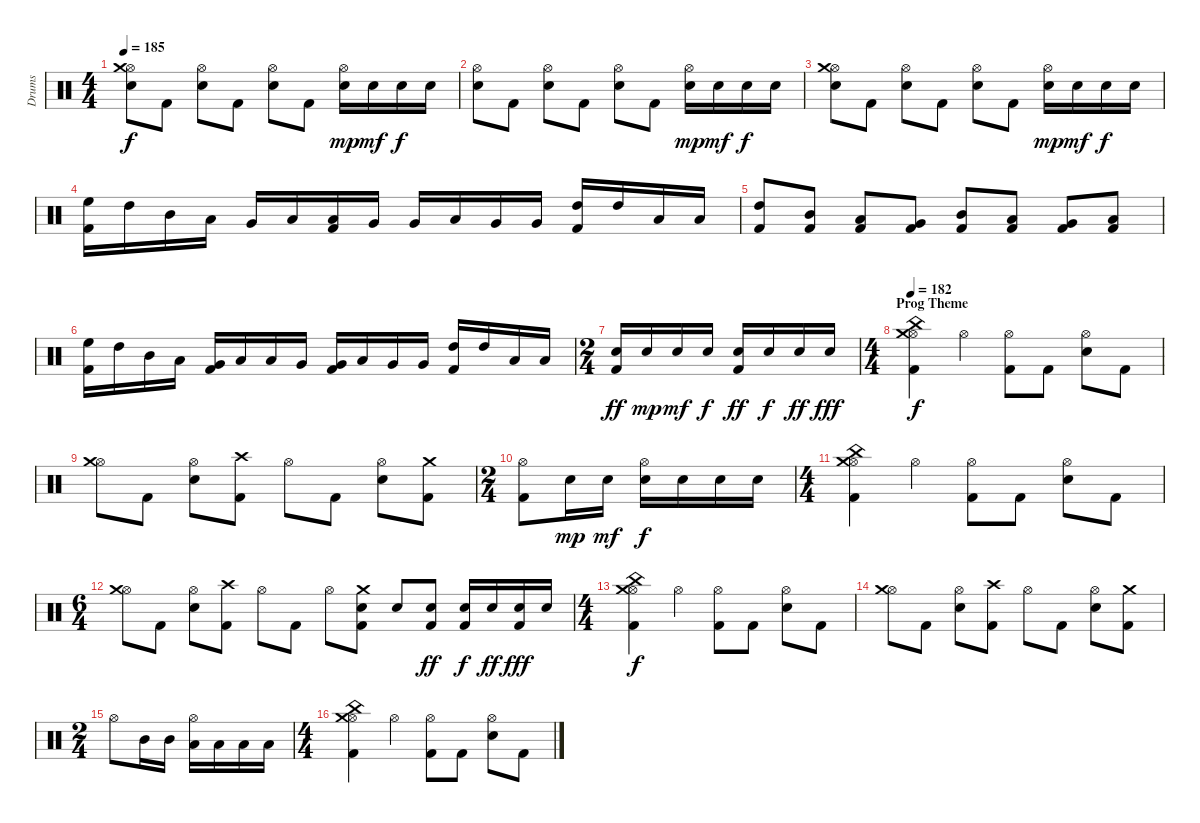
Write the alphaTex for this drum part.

\track ("Drums" "Drums") {instrument percussion}
\staff {score}
\articulation defaults
\ts (4 4)
\section ("" "")
\tempo 185
\clef neutral
\ks c
("Hi-Hat (open)" "Crash medium (hit)" "Electric Snare (hit)").8{dy f} "Kick (hit) 2".8 ("Hi-Hat (open)" "Electric Snare (hit)").8 "Kick (hit) 2".8 ("Hi-Hat (open)" "Electric Snare (hit)").8 "Kick (hit) 2".8 ("Hi-Hat (open)" "Electric Snare (hit)").16{dy mp} "Electric Snare (hit)".16{dy mf} "Electric Snare (hit)".16{dy f} "Electric Snare (hit)".16 |
("Hi-Hat (open)" "Electric Snare (hit)").8 "Kick (hit) 2".8 ("Hi-Hat (open)" "Electric Snare (hit)").8 "Kick (hit) 2".8 ("Hi-Hat (open)" "Electric Snare (hit)").8 "Kick (hit) 2".8 ("Hi-Hat (open)" "Electric Snare (hit)").16{dy mp} "Electric Snare (hit)".16{dy mf} "Electric Snare (hit)".16{dy f} "Electric Snare (hit)".16 |
("Hi-Hat (open)" "Crash medium (hit)" "Electric Snare (hit)").8 "Kick (hit) 2".8 ("Hi-Hat (open)" "Electric Snare (hit)").8 "Kick (hit) 2".8 ("Hi-Hat (open)" "Electric Snare (hit)").8 "Kick (hit) 2".8 ("Hi-Hat (open)" "Electric Snare (hit)").16{dy mp} "Electric Snare (hit)".16{dy mf} "Electric Snare (hit)".16{dy f} "Electric Snare (hit)".16 |
("High Floor Tom (hit)" "Kick (hit) 2").16 "High Tom (hit)".16 "Mid Tom (hit)".16 "Low Tom (hit)".16 "Very Low Tom (hit)".16 "Low Floor Tom (hit)".16 ("Low Tom (hit)" "Kick (hit) 2").16 "Very Low Tom (hit)".16 "Very Low Tom (hit)".16 "Low Tom (hit)".16 "Very Low Tom (hit)".16 "Very Low Tom (hit)".16 ("High Tom (hit)" "Kick (hit) 2").16 "High Tom (hit)".16 "Low Tom (hit)".16 "Low Tom (hit)".16 |
\section ("" "")
("High Tom (hit)" "Kick (hit) 2").8 ("Mid Tom (hit)" "Kick (hit) 2").8 ("Low Tom (hit)" "Kick (hit) 2").8 ("Very Low Tom (hit)" "Kick (hit) 2").8 ("Mid Tom (hit)" "Kick (hit) 2").8 ("Low Tom (hit)" "Kick (hit) 2").8 ("Very Low Tom (hit)" "Kick (hit) 2").8 ("Low Floor Tom (hit)" "Kick (hit) 2").8 |
("High Floor Tom (hit)" "Kick (hit) 2").16 "High Tom (hit)".16 "Mid Tom (hit)".16 "Low Tom (hit)".16 ("Very Low Tom (hit)" "Kick (hit) 2").16 "Low Floor Tom (hit)".16 "Low Tom (hit)".16 "Very Low Tom (hit)".16 ("Very Low Tom (hit)" "Kick (hit) 2").16 "Low Tom (hit)".16 "Very Low Tom (hit)".16 "Very Low Tom (hit)".16 ("High Tom (hit)" "Kick (hit) 2").16 "High Tom (hit)".16 "Low Tom (hit)".16 "Low Tom (hit)".16 |
\ts (2 4)
("Electric Snare (hit)" "Kick (hit) 2").16{dy ff} "Electric Snare (hit)".16{dy mp} "Electric Snare (hit)".16{dy mf} "Electric Snare (hit)".16{dy f} ("Electric Snare (hit)" "Kick (hit) 2").16{dy ff} "Electric Snare (hit)".16{dy f} "Electric Snare (hit)".16{dy ff} "Electric Snare (hit)".16{dy fff} |
\ts (4 4)
\section ("" "Prog Theme")
\tempo 182
("Hi-Hat (open)" "Crash medium (hit)" "China (hit)" "Kick (hit) 2").4{dy f} "Hi-Hat (open)".4 ("Hi-Hat (open)" "Kick (hit) 2").8 "Kick (hit) 2".8 ("Hi-Hat (open)" "Electric Snare (hit)").8 "Kick (hit) 2".8 |
("Hi-Hat (open)" "Crash medium (hit)").8 "Kick (hit) 2".8 ("Hi-Hat (open)" "Electric Snare (hit)").8 ("Crash high (hit)" "Kick (hit) 2").8 "Hi-Hat (open)".8 "Kick (hit) 2".8 ("Hi-Hat (open)" "Electric Snare (hit)").8 ("Crash medium (hit)" "Kick (hit) 2").8 |
\ts (2 4)
("Hi-Hat (open)" "Kick (hit) 2").8 "Electric Snare (hit)".16{dy mp} "Electric Snare (hit)".16{dy mf} ("Hi-Hat (open)" "Electric Snare (hit)").16{dy f} "Electric Snare (hit)".16 "Electric Snare (hit)".16 "Electric Snare (hit)".16 |
\ts (4 4)
("Hi-Hat (open)" "Crash medium (hit)" "China (hit)" "Kick (hit) 2").4 "Hi-Hat (open)".4 ("Hi-Hat (open)" "Kick (hit) 2").8 "Kick (hit) 2".8 ("Hi-Hat (open)" "Electric Snare (hit)").8 "Kick (hit) 2".8 |
\ts (6 4)
("Hi-Hat (open)" "Crash medium (hit)").8 "Kick (hit) 2".8 ("Hi-Hat (open)" "Electric Snare (hit)").8 ("Crash high (hit)" "Kick (hit) 2").8 "Hi-Hat (open)".8 "Kick (hit) 2".8 "Hi-Hat (open)".8 ("Crash medium (hit)" "Electric Snare (hit)" "Kick (hit) 2").8 "Electric Snare (hit)".8 ("Electric Snare (hit)" "Kick (hit) 2").8{dy ff} ("Electric Snare (hit)" "Kick (hit) 2").16{dy f} "Electric Snare (hit)".16{dy ff} ("Electric Snare (hit)" "Kick (hit) 2").16{dy fff} "Electric Snare (hit)".16 |
\ts (4 4)
("Hi-Hat (open)" "Crash medium (hit)" "China (hit)" "Kick (hit) 2").4{dy f} "Hi-Hat (open)".4 ("Hi-Hat (open)" "Kick (hit) 2").8 "Kick (hit) 2".8 ("Hi-Hat (open)" "Electric Snare (hit)").8 "Kick (hit) 2".8 |
("Hi-Hat (open)" "Crash medium (hit)").8 "Kick (hit) 2".8 ("Hi-Hat (open)" "Electric Snare (hit)").8 ("Crash high (hit)" "Kick (hit) 2").8 "Hi-Hat (open)".8 "Kick (hit) 2".8 ("Hi-Hat (open)" "Electric Snare (hit)").8 ("Crash medium (hit)" "Kick (hit) 2").8 |
\ts (2 4)
"Hi-Hat (open)".8 "Mid Tom (hit)".16 "Mid Tom (hit)".16 ("Hi-Hat (open)" "Low Tom (hit)").16 "Low Tom (hit)".16 "Low Tom (hit)".16 "Low Tom (hit)".16 |
\ts (4 4)
("Hi-Hat (open)" "Crash medium (hit)" "China (hit)" "Kick (hit) 2").4 "Hi-Hat (open)".4 ("Hi-Hat (open)" "Kick (hit) 2").8 "Kick (hit) 2".8 ("Hi-Hat (open)" "Electric Snare (hit)").8 "Kick (hit) 2".8
